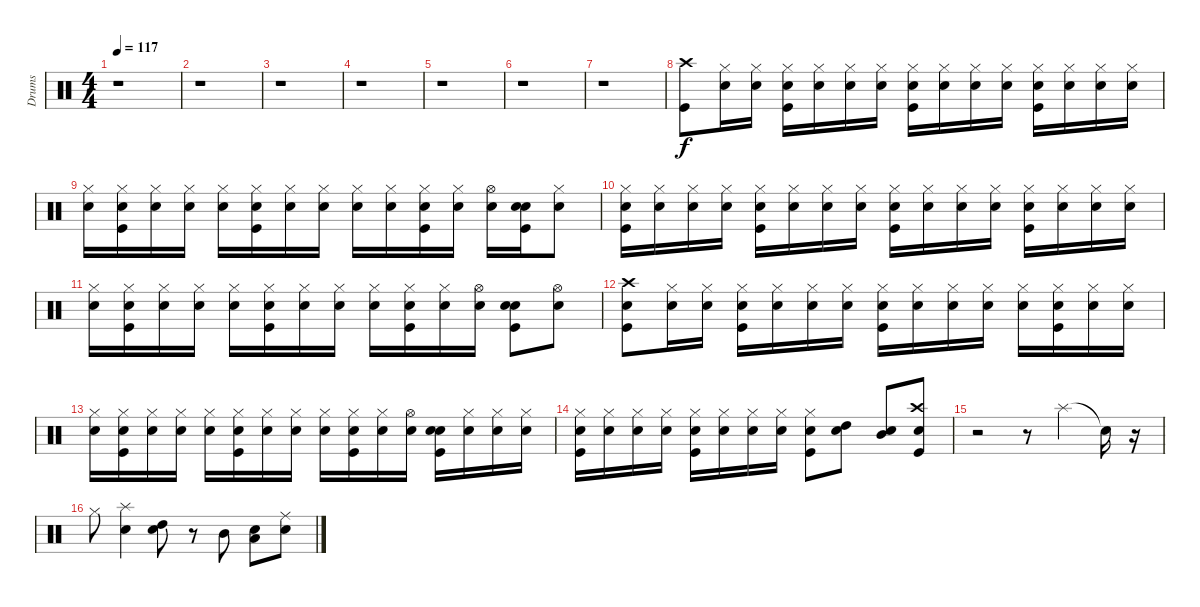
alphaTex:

\track ("Drums" "Drums") {instrument percussion}
\staff {score}
\articulation defaults
\ts (4 4)
\tempo 117
\clef neutral
\ks c
r.1{dy f} |
r.1 |
r.1 |
r.1 |
r.1 |
r.1 |
r.1 |
("Kick (hit)" "Crash high (hit)").8 ("Snare (hit)" "Hi-Hat (closed)").16 ("Snare (hit)" "Hi-Hat (closed)").16 ("Snare (hit)" "Kick (hit)" "Hi-Hat (closed)").16 ("Snare (hit)" "Hi-Hat (closed)").16 ("Snare (hit)" "Hi-Hat (closed)").16 ("Snare (hit)" "Hi-Hat (closed)").16 ("Snare (hit)" "Kick (hit)" "Hi-Hat (closed)").16 ("Snare (hit)" "Hi-Hat (closed)").16 ("Snare (hit)" "Hi-Hat (closed)").16 ("Snare (hit)" "Hi-Hat (closed)").16 ("Snare (hit)" "Kick (hit)" "Hi-Hat (closed)").16 ("Snare (hit)" "Hi-Hat (closed)").16 ("Snare (hit)" "Hi-Hat (closed)").16 ("Snare (hit)" "Hi-Hat (closed)").16 |
("Snare (hit)" "Hi-Hat (closed)").16 ("Snare (hit)" "Kick (hit)" "Hi-Hat (closed)").16 ("Snare (hit)" "Hi-Hat (closed)").16 ("Snare (hit)" "Hi-Hat (closed)").16 ("Snare (hit)" "Hi-Hat (closed)").16 ("Snare (hit)" "Kick (hit)" "Hi-Hat (closed)").16 ("Snare (hit)" "Hi-Hat (closed)").16 ("Snare (hit)" "Hi-Hat (closed)").16 ("Snare (hit)" "Hi-Hat (closed)").16 ("Snare (hit)" "Hi-Hat (closed)").16 ("Snare (hit)" "Kick (hit)" "Hi-Hat (closed)").16 ("Snare (hit)" "Hi-Hat (closed)").16 ("Snare (hit)" "Hi-Hat (open)").16 ("Snare (hit)" "Kick (hit)" "Electric Snare (hit)").16 ("Snare (hit)" "Hi-Hat (closed)").8 |
("Snare (hit)" "Kick (hit)" "Hi-Hat (closed)").16 ("Snare (hit)" "Hi-Hat (closed)").16 ("Snare (hit)" "Hi-Hat (closed)").16 ("Snare (hit)" "Hi-Hat (closed)").16 ("Snare (hit)" "Kick (hit)" "Hi-Hat (closed)").16 ("Snare (hit)" "Hi-Hat (closed)").16 ("Snare (hit)" "Hi-Hat (closed)").16 ("Snare (hit)" "Hi-Hat (closed)").16 ("Snare (hit)" "Kick (hit)" "Hi-Hat (closed)").16 ("Snare (hit)" "Hi-Hat (closed)").16 ("Snare (hit)" "Hi-Hat (closed)").16 ("Snare (hit)" "Hi-Hat (closed)").16 ("Snare (hit)" "Kick (hit)" "Hi-Hat (closed)").16 ("Snare (hit)" "Hi-Hat (closed)").16 ("Snare (hit)" "Hi-Hat (closed)").16 ("Snare (hit)" "Hi-Hat (closed)").16 |
("Snare (hit)" "Hi-Hat (closed)").16 ("Snare (hit)" "Kick (hit)" "Hi-Hat (closed)").16 ("Snare (hit)" "Hi-Hat (closed)").16 ("Snare (hit)" "Hi-Hat (closed)").16 ("Snare (hit)" "Hi-Hat (closed)").16 ("Snare (hit)" "Kick (hit)" "Hi-Hat (closed)").16 ("Snare (hit)" "Hi-Hat (closed)").16 ("Snare (hit)" "Hi-Hat (closed)").16 ("Snare (hit)" "Hi-Hat (closed)").16 ("Snare (hit)" "Kick (hit)" "Hi-Hat (closed)").16 ("Snare (hit)" "Hi-Hat (closed)").16 ("Snare (hit)" "Hi-Hat (open)").16 ("Snare (hit)" "Kick (hit)" "Electric Snare (hit)").8 ("Snare (hit)" "Hi-Hat (open)").8 |
("Snare (hit)" "Kick (hit)" "Crash high (hit)").8 ("Snare (hit)" "Hi-Hat (closed)").16 ("Snare (hit)" "Hi-Hat (closed)").16 ("Snare (hit)" "Kick (hit)" "Hi-Hat (closed)").16 ("Snare (hit)" "Hi-Hat (closed)").16 ("Snare (hit)" "Hi-Hat (closed)").16 ("Snare (hit)" "Hi-Hat (closed)").16 ("Snare (hit)" "Kick (hit)" "Hi-Hat (closed)").16 ("Snare (hit)" "Hi-Hat (closed)").16 ("Snare (hit)" "Hi-Hat (closed)").16 ("Snare (hit)" "Hi-Hat (closed)").16 ("Snare (hit)" "Hi-Hat (closed)").16 ("Snare (hit)" "Kick (hit)" "Hi-Hat (closed)").16 ("Snare (hit)" "Hi-Hat (closed)").16 ("Snare (hit)" "Hi-Hat (closed)").16 |
("Snare (hit)" "Hi-Hat (closed)").16 ("Snare (hit)" "Kick (hit)" "Hi-Hat (closed)").16 ("Snare (hit)" "Hi-Hat (closed)").16 ("Snare (hit)" "Hi-Hat (closed)").16 ("Snare (hit)" "Hi-Hat (closed)").16 ("Snare (hit)" "Kick (hit)" "Hi-Hat (closed)").16 ("Snare (hit)" "Hi-Hat (closed)").16 ("Snare (hit)" "Hi-Hat (closed)").16 ("Snare (hit)" "Hi-Hat (closed)").16 ("Snare (hit)" "Kick (hit)" "Hi-Hat (closed)").16 ("Snare (hit)" "Hi-Hat (closed)").16 ("Snare (hit)" "Hi-Hat (open)").16 ("Snare (hit)" "Kick (hit)" "Electric Snare (hit)").16 ("Snare (hit)" "Hi-Hat (closed)").16 ("Snare (hit)" "Hi-Hat (closed)").16 ("Snare (hit)" "Hi-Hat (closed)").16 |
("Snare (hit)" "Kick (hit)" "Hi-Hat (closed)").16 ("Snare (hit)" "Hi-Hat (closed)").16 ("Snare (hit)" "Hi-Hat (closed)").16 ("Snare (hit)" "Hi-Hat (closed)").16 ("Snare (hit)" "Kick (hit)" "Hi-Hat (closed)").16 ("Snare (hit)" "Hi-Hat (closed)").16 ("Snare (hit)" "Hi-Hat (closed)").16 ("Snare (hit)" "Hi-Hat (closed)").16 ("Snare (hit)" "Kick (hit)" "Hi-Hat (closed)").8 ("Snare (hit)" "High Tom (hit)").8 ("Snare (hit)" "Mid Tom (hit)").8 ("Snare (hit)" "Kick (hit)" "Crash high (hit)").8 |
r.2 r.8 "Splash (hit)".4 "Snare (hit)"{t}.16 r.16 |
"Hi-Hat (closed)".8 ("Snare (hit)" "Splash (hit)").4 ("Snare (hit)" "High Tom (hit)").8 r.8 "Mid Tom (hit)".8 ("Snare (hit)" "Low Tom (hit)").8 ("Snare (hit)" "Ride (middle)").8
